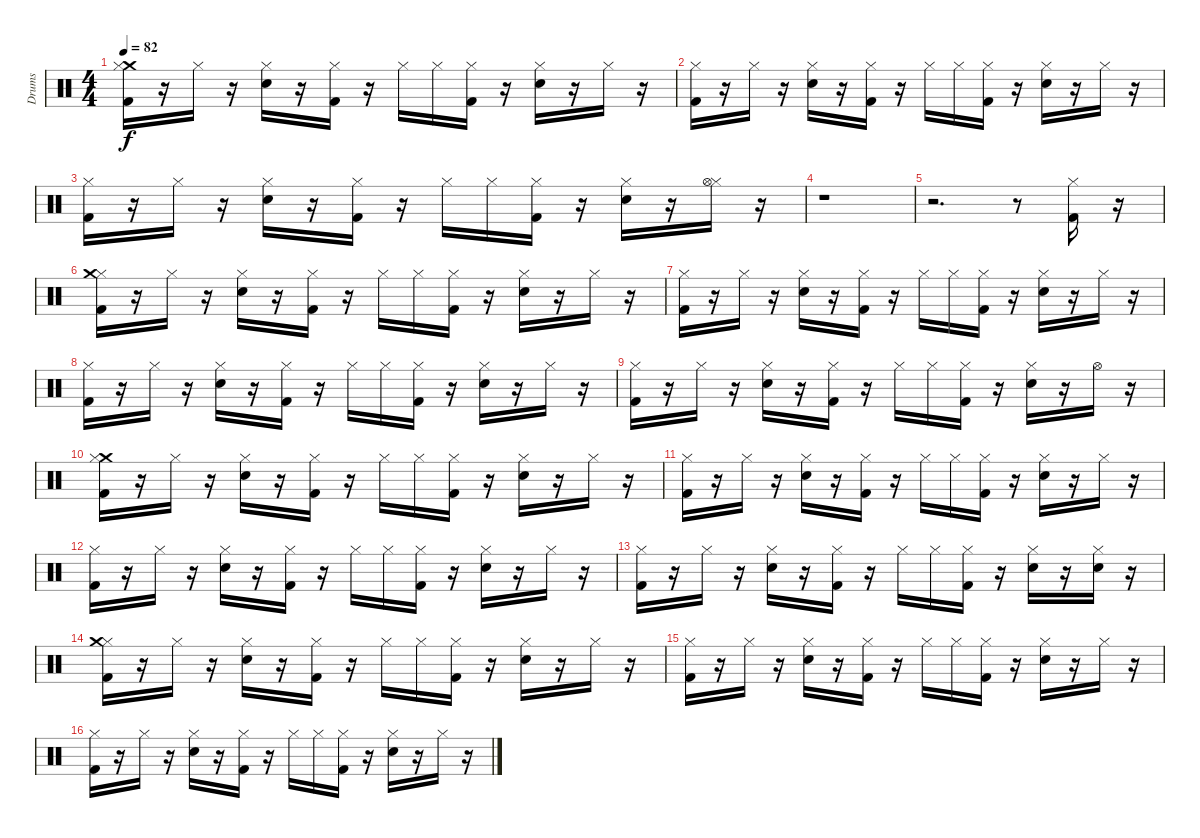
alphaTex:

\track ("Drums" "Drums") {instrument percussion}
\staff {score}
\articulation defaults
\ts (4 4)
\tempo 82
\clef neutral
\ks c
("Crash medium (hit)" "Hi-Hat (closed)" "Kick (hit) 2").16{dy f} r.16 "Hi-Hat (closed)".16 r.16 ("Electric Snare (hit)" "Hi-Hat (closed)").16 r.16 ("Hi-Hat (closed)" "Kick (hit) 2").16 r.16 "Hi-Hat (closed)".16 "Hi-Hat (closed)".16 ("Kick (hit) 2" "Hi-Hat (closed)").16 r.16 ("Hi-Hat (closed)" "Electric Snare (hit)").16 r.16 "Hi-Hat (closed)".16 r.16 |
("Kick (hit) 2" "Hi-Hat (closed)").16 r.16 "Hi-Hat (closed)".16 r.16 ("Hi-Hat (closed)" "Electric Snare (hit)").16 r.16 ("Kick (hit) 2" "Hi-Hat (closed)").16 r.16 "Hi-Hat (closed)".16 "Hi-Hat (closed)".16 ("Hi-Hat (closed)" "Kick (hit) 2").16 r.16 ("Electric Snare (hit)" "Hi-Hat (closed)").16 r.16 "Hi-Hat (closed)".16 r.16 |
("Hi-Hat (closed)" "Kick (hit) 2").16 r.16 "Hi-Hat (closed)".16 r.16 ("Electric Snare (hit)" "Hi-Hat (closed)").16 r.16 ("Hi-Hat (closed)" "Kick (hit) 2").16 r.16 "Hi-Hat (closed)".16 "Hi-Hat (closed)".16 ("Kick (hit) 2" "Hi-Hat (closed)").16 r.16 ("Hi-Hat (closed)" "Electric Snare (hit)").16 r.16 ("Hi-Hat (closed)" "Hi-Hat (open)").16 r.16 |
r.1 |
r.2{d} r.8 ("Hi-Hat (closed)" "Kick (hit) 2").16 r.16 |
("Kick (hit) 2" "Hi-Hat (closed)" "Crash medium (hit)").16 r.16 "Hi-Hat (closed)".16 r.16 ("Electric Snare (hit)" "Hi-Hat (closed)").16 r.16 ("Hi-Hat (closed)" "Kick (hit) 2").16 r.16 "Hi-Hat (closed)".16 "Hi-Hat (closed)".16 ("Hi-Hat (closed)" "Kick (hit) 2").16 r.16 ("Hi-Hat (closed)" "Electric Snare (hit)").16 r.16 "Hi-Hat (closed)".16 r.16 |
("Kick (hit) 2" "Hi-Hat (closed)").16 r.16 "Hi-Hat (closed)".16 r.16 ("Electric Snare (hit)" "Hi-Hat (closed)").16 r.16 ("Kick (hit) 2" "Hi-Hat (closed)").16 r.16 "Hi-Hat (closed)".16 "Hi-Hat (closed)".16 ("Hi-Hat (closed)" "Kick (hit) 2").16 r.16 ("Electric Snare (hit)" "Hi-Hat (closed)").16 r.16 "Hi-Hat (closed)".16 r.16 |
("Hi-Hat (closed)" "Kick (hit) 2").16 r.16 "Hi-Hat (closed)".16 r.16 ("Electric Snare (hit)" "Hi-Hat (closed)").16 r.16 ("Hi-Hat (closed)" "Kick (hit) 2").16 r.16 "Hi-Hat (closed)".16 "Hi-Hat (closed)".16 ("Kick (hit) 2" "Hi-Hat (closed)").16 r.16 ("Hi-Hat (closed)" "Electric Snare (hit)").16 r.16 "Hi-Hat (closed)".16 r.16 |
("Kick (hit) 2" "Hi-Hat (closed)").16 r.16 "Hi-Hat (closed)".16 r.16 ("Hi-Hat (closed)" "Electric Snare (hit)").16 r.16 ("Kick (hit) 2" "Hi-Hat (closed)").16 r.16 "Hi-Hat (closed)".16 "Hi-Hat (closed)".16 ("Hi-Hat (closed)" "Kick (hit) 2").16 r.16 ("Electric Snare (hit)" "Hi-Hat (closed)").16 r.16 "Hi-Hat (open)".16 r.16 |
("Crash medium (hit)" "Hi-Hat (closed)" "Kick (hit) 2").16 r.16 "Hi-Hat (closed)".16 r.16 ("Hi-Hat (closed)" "Electric Snare (hit)").16 r.16 ("Hi-Hat (closed)" "Kick (hit) 2").16 r.16 "Hi-Hat (closed)".16 "Hi-Hat (closed)".16 ("Kick (hit) 2" "Hi-Hat (closed)").16 r.16 ("Electric Snare (hit)" "Hi-Hat (closed)").16 r.16 "Hi-Hat (closed)".16 r.16 |
("Kick (hit) 2" "Hi-Hat (closed)").16 r.16 "Hi-Hat (closed)".16 r.16 ("Hi-Hat (closed)" "Electric Snare (hit)").16 r.16 ("Hi-Hat (closed)" "Kick (hit) 2").16 r.16 "Hi-Hat (closed)".16 "Hi-Hat (closed)".16 ("Hi-Hat (closed)" "Kick (hit) 2").16 r.16 ("Hi-Hat (closed)" "Electric Snare (hit)").16 r.16 "Hi-Hat (closed)".16 r.16 |
("Kick (hit) 2" "Hi-Hat (closed)").16 r.16 "Hi-Hat (closed)".16 r.16 ("Electric Snare (hit)" "Hi-Hat (closed)").16 r.16 ("Kick (hit) 2" "Hi-Hat (closed)").16 r.16 "Hi-Hat (closed)".16 "Hi-Hat (closed)".16 ("Kick (hit) 2" "Hi-Hat (closed)").16 r.16 ("Electric Snare (hit)" "Hi-Hat (closed)").16 r.16 "Hi-Hat (closed)".16 r.16 |
("Hi-Hat (closed)" "Kick (hit) 2").16 r.16 "Hi-Hat (closed)".16 r.16 ("Hi-Hat (closed)" "Electric Snare (hit)").16 r.16 ("Hi-Hat (closed)" "Kick (hit) 2").16 r.16 "Hi-Hat (closed)".16 "Hi-Hat (closed)".16 ("Kick (hit) 2" "Hi-Hat (closed)").16 r.16 ("Hi-Hat (closed)" "Electric Snare (hit)").16 r.16 ("Electric Snare (hit)" "Hi-Hat (closed)").16 r.16 |
("Kick (hit) 2" "Hi-Hat (closed)" "Crash medium (hit)").16 r.16 "Hi-Hat (closed)".16 r.16 ("Electric Snare (hit)" "Hi-Hat (closed)").16 r.16 ("Kick (hit) 2" "Hi-Hat (closed)").16 r.16 "Hi-Hat (closed)".16 "Hi-Hat (closed)".16 ("Hi-Hat (closed)" "Kick (hit) 2").16 r.16 ("Electric Snare (hit)" "Hi-Hat (closed)").16 r.16 "Hi-Hat (closed)".16 r.16 |
("Hi-Hat (closed)" "Kick (hit) 2").16 r.16 "Hi-Hat (closed)".16 r.16 ("Electric Snare (hit)" "Hi-Hat (closed)").16 r.16 ("Hi-Hat (closed)" "Kick (hit) 2").16 r.16 "Hi-Hat (closed)".16 "Hi-Hat (closed)".16 ("Kick (hit) 2" "Hi-Hat (closed)").16 r.16 ("Hi-Hat (closed)" "Electric Snare (hit)").16 r.16 "Hi-Hat (closed)".16 r.16 |
("Kick (hit) 2" "Hi-Hat (closed)").16 r.16 "Hi-Hat (closed)".16 r.16 ("Hi-Hat (closed)" "Electric Snare (hit)").16 r.16 ("Kick (hit) 2" "Hi-Hat (closed)").16 r.16 "Hi-Hat (closed)".16 "Hi-Hat (closed)".16 ("Hi-Hat (closed)" "Kick (hit) 2").16 r.16 ("Hi-Hat (closed)" "Electric Snare (hit)").16 r.16 "Hi-Hat (closed)".16 r.16
